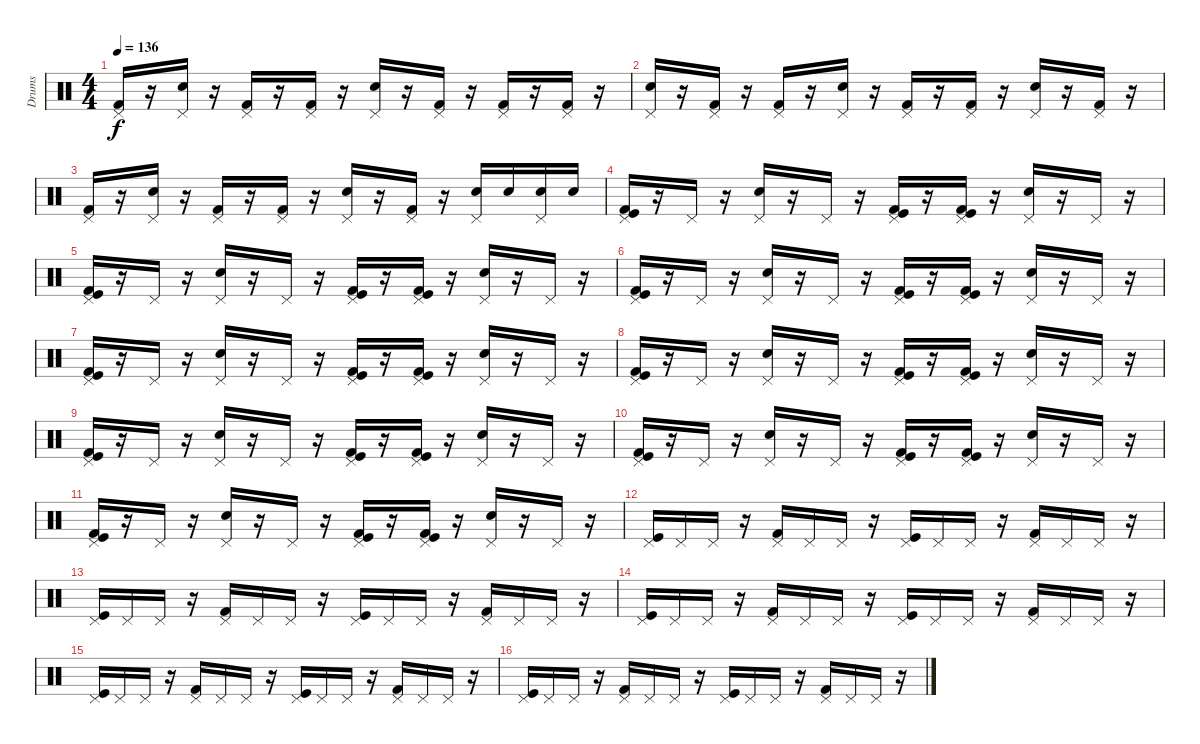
\track ("Drums" "Drums") {instrument percussion}
\staff {score}
\articulation defaults
\ts (4 4)
\tempo 136
\clef neutral
\ks c
("Kick (hit) 2" "Pedal Hi-Hat (hit)").16{dy f} r.16 ("Snare (hit) 2" "Pedal Hi-Hat (hit)").16 r.16 ("Kick (hit) 2" "Pedal Hi-Hat (hit)").16 r.16 ("Kick (hit) 2" "Pedal Hi-Hat (hit)").16 r.16 ("Snare (hit) 2" "Pedal Hi-Hat (hit)").16 r.16 ("Kick (hit) 2" "Pedal Hi-Hat (hit)").16 r.16 ("Kick (hit) 2" "Pedal Hi-Hat (hit)").16 r.16 ("Kick (hit) 2" "Pedal Hi-Hat (hit)").16 r.16 |
("Snare (hit) 2" "Pedal Hi-Hat (hit)").16 r.16 ("Kick (hit) 2" "Pedal Hi-Hat (hit)").16 r.16 ("Kick (hit) 2" "Pedal Hi-Hat (hit)").16 r.16 ("Snare (hit) 2" "Pedal Hi-Hat (hit)").16 r.16 ("Kick (hit) 2" "Pedal Hi-Hat (hit)").16 r.16 ("Kick (hit) 2" "Pedal Hi-Hat (hit)").16 r.16 ("Snare (hit) 2" "Pedal Hi-Hat (hit)").16 r.16 ("Kick (hit) 2" "Pedal Hi-Hat (hit)").16 r.16 |
("Kick (hit) 2" "Pedal Hi-Hat (hit)").16 r.16 ("Snare (hit) 2" "Pedal Hi-Hat (hit)").16 r.16 ("Kick (hit) 2" "Pedal Hi-Hat (hit)").16 r.16 ("Kick (hit) 2" "Pedal Hi-Hat (hit)").16 r.16 ("Snare (hit) 2" "Pedal Hi-Hat (hit)").16 r.16 ("Kick (hit) 2" "Pedal Hi-Hat (hit)").16 r.16 ("Snare (hit) 2" "Pedal Hi-Hat (hit)").16 "Snare (hit) 2".16 ("Snare (hit) 2" "Pedal Hi-Hat (hit)").16 "Snare (hit) 2".16 |
("Kick (hit) 2" "Kick (hit)" "Pedal Hi-Hat (hit)").16 r.16 "Pedal Hi-Hat (hit)".16 r.16 ("Electric Snare (hit)" "Pedal Hi-Hat (hit)").16 r.16 "Pedal Hi-Hat (hit)".16 r.16 ("Kick (hit) 2" "Kick (hit)" "Pedal Hi-Hat (hit)").16 r.16 ("Kick (hit) 2" "Kick (hit)" "Pedal Hi-Hat (hit)").16 r.16 ("Electric Snare (hit)" "Pedal Hi-Hat (hit)").16 r.16 "Pedal Hi-Hat (hit)".16 r.16 |
("Kick (hit) 2" "Kick (hit)" "Pedal Hi-Hat (hit)").16 r.16 "Pedal Hi-Hat (hit)".16 r.16 ("Electric Snare (hit)" "Pedal Hi-Hat (hit)").16 r.16 "Pedal Hi-Hat (hit)".16 r.16 ("Kick (hit) 2" "Kick (hit)" "Pedal Hi-Hat (hit)").16 r.16 ("Kick (hit) 2" "Kick (hit)" "Pedal Hi-Hat (hit)").16 r.16 ("Electric Snare (hit)" "Pedal Hi-Hat (hit)").16 r.16 "Pedal Hi-Hat (hit)".16 r.16 |
("Kick (hit) 2" "Kick (hit)" "Pedal Hi-Hat (hit)").16 r.16 "Pedal Hi-Hat (hit)".16 r.16 ("Electric Snare (hit)" "Pedal Hi-Hat (hit)").16 r.16 "Pedal Hi-Hat (hit)".16 r.16 ("Kick (hit) 2" "Kick (hit)" "Pedal Hi-Hat (hit)").16 r.16 ("Kick (hit) 2" "Kick (hit)" "Pedal Hi-Hat (hit)").16 r.16 ("Electric Snare (hit)" "Pedal Hi-Hat (hit)").16 r.16 "Pedal Hi-Hat (hit)".16 r.16 |
("Kick (hit) 2" "Kick (hit)" "Pedal Hi-Hat (hit)").16 r.16 "Pedal Hi-Hat (hit)".16 r.16 ("Electric Snare (hit)" "Pedal Hi-Hat (hit)").16 r.16 "Pedal Hi-Hat (hit)".16 r.16 ("Kick (hit) 2" "Kick (hit)" "Pedal Hi-Hat (hit)").16 r.16 ("Kick (hit) 2" "Kick (hit)" "Pedal Hi-Hat (hit)").16 r.16 ("Electric Snare (hit)" "Pedal Hi-Hat (hit)").16 r.16 "Pedal Hi-Hat (hit)".16 r.16 |
("Kick (hit) 2" "Kick (hit)" "Pedal Hi-Hat (hit)").16 r.16 "Pedal Hi-Hat (hit)".16 r.16 ("Electric Snare (hit)" "Pedal Hi-Hat (hit)").16 r.16 "Pedal Hi-Hat (hit)".16 r.16 ("Kick (hit) 2" "Kick (hit)" "Pedal Hi-Hat (hit)").16 r.16 ("Kick (hit) 2" "Kick (hit)" "Pedal Hi-Hat (hit)").16 r.16 ("Electric Snare (hit)" "Pedal Hi-Hat (hit)").16 r.16 "Pedal Hi-Hat (hit)".16 r.16 |
("Kick (hit) 2" "Kick (hit)" "Pedal Hi-Hat (hit)").16 r.16 "Pedal Hi-Hat (hit)".16 r.16 ("Electric Snare (hit)" "Pedal Hi-Hat (hit)").16 r.16 "Pedal Hi-Hat (hit)".16 r.16 ("Kick (hit) 2" "Kick (hit)" "Pedal Hi-Hat (hit)").16 r.16 ("Kick (hit) 2" "Kick (hit)" "Pedal Hi-Hat (hit)").16 r.16 ("Electric Snare (hit)" "Pedal Hi-Hat (hit)").16 r.16 "Pedal Hi-Hat (hit)".16 r.16 |
("Kick (hit) 2" "Kick (hit)" "Pedal Hi-Hat (hit)").16 r.16 "Pedal Hi-Hat (hit)".16 r.16 ("Electric Snare (hit)" "Pedal Hi-Hat (hit)").16 r.16 "Pedal Hi-Hat (hit)".16 r.16 ("Kick (hit) 2" "Kick (hit)" "Pedal Hi-Hat (hit)").16 r.16 ("Kick (hit) 2" "Kick (hit)" "Pedal Hi-Hat (hit)").16 r.16 ("Electric Snare (hit)" "Pedal Hi-Hat (hit)").16 r.16 "Pedal Hi-Hat (hit)".16 r.16 |
("Kick (hit) 2" "Kick (hit)" "Pedal Hi-Hat (hit)").16 r.16 "Pedal Hi-Hat (hit)".16 r.16 ("Electric Snare (hit)" "Pedal Hi-Hat (hit)").16 r.16 "Pedal Hi-Hat (hit)".16 r.16 ("Kick (hit) 2" "Kick (hit)" "Pedal Hi-Hat (hit)").16 r.16 ("Kick (hit) 2" "Kick (hit)" "Pedal Hi-Hat (hit)").16 r.16 ("Electric Snare (hit)" "Pedal Hi-Hat (hit)").16 r.16 "Pedal Hi-Hat (hit)".16 r.16 |
("Kick (hit)" "Pedal Hi-Hat (hit)").16 "Pedal Hi-Hat (hit)".16 "Pedal Hi-Hat (hit)".16 r.16 ("Kick (hit) 2" "Pedal Hi-Hat (hit)").16 "Pedal Hi-Hat (hit)".16 "Pedal Hi-Hat (hit)".16 r.16 ("Kick (hit)" "Pedal Hi-Hat (hit)").16 "Pedal Hi-Hat (hit)".16 "Pedal Hi-Hat (hit)".16 r.16 ("Kick (hit) 2" "Pedal Hi-Hat (hit)").16 "Pedal Hi-Hat (hit)".16 "Pedal Hi-Hat (hit)".16 r.16 |
("Kick (hit)" "Pedal Hi-Hat (hit)").16 "Pedal Hi-Hat (hit)".16 "Pedal Hi-Hat (hit)".16 r.16 ("Kick (hit) 2" "Pedal Hi-Hat (hit)").16 "Pedal Hi-Hat (hit)".16 "Pedal Hi-Hat (hit)".16 r.16 ("Kick (hit)" "Pedal Hi-Hat (hit)").16 "Pedal Hi-Hat (hit)".16 "Pedal Hi-Hat (hit)".16 r.16 ("Kick (hit) 2" "Pedal Hi-Hat (hit)").16 "Pedal Hi-Hat (hit)".16 "Pedal Hi-Hat (hit)".16 r.16 |
("Kick (hit)" "Pedal Hi-Hat (hit)").16 "Pedal Hi-Hat (hit)".16 "Pedal Hi-Hat (hit)".16 r.16 ("Kick (hit) 2" "Pedal Hi-Hat (hit)").16 "Pedal Hi-Hat (hit)".16 "Pedal Hi-Hat (hit)".16 r.16 ("Kick (hit)" "Pedal Hi-Hat (hit)").16 "Pedal Hi-Hat (hit)".16 "Pedal Hi-Hat (hit)".16 r.16 ("Kick (hit) 2" "Pedal Hi-Hat (hit)").16 "Pedal Hi-Hat (hit)".16 "Pedal Hi-Hat (hit)".16 r.16 |
("Kick (hit)" "Pedal Hi-Hat (hit)").16 "Pedal Hi-Hat (hit)".16 "Pedal Hi-Hat (hit)".16 r.16 ("Kick (hit) 2" "Pedal Hi-Hat (hit)").16 "Pedal Hi-Hat (hit)".16 "Pedal Hi-Hat (hit)".16 r.16 ("Kick (hit)" "Pedal Hi-Hat (hit)").16 "Pedal Hi-Hat (hit)".16 "Pedal Hi-Hat (hit)".16 r.16 ("Kick (hit) 2" "Pedal Hi-Hat (hit)").16 "Pedal Hi-Hat (hit)".16 "Pedal Hi-Hat (hit)".16 r.16 |
("Kick (hit)" "Pedal Hi-Hat (hit)").16 "Pedal Hi-Hat (hit)".16 "Pedal Hi-Hat (hit)".16 r.16 ("Kick (hit) 2" "Pedal Hi-Hat (hit)").16 "Pedal Hi-Hat (hit)".16 "Pedal Hi-Hat (hit)".16 r.16 ("Kick (hit)" "Pedal Hi-Hat (hit)").16 "Pedal Hi-Hat (hit)".16 "Pedal Hi-Hat (hit)".16 r.16 ("Kick (hit) 2" "Pedal Hi-Hat (hit)").16 "Pedal Hi-Hat (hit)".16 "Pedal Hi-Hat (hit)".16 r.16
